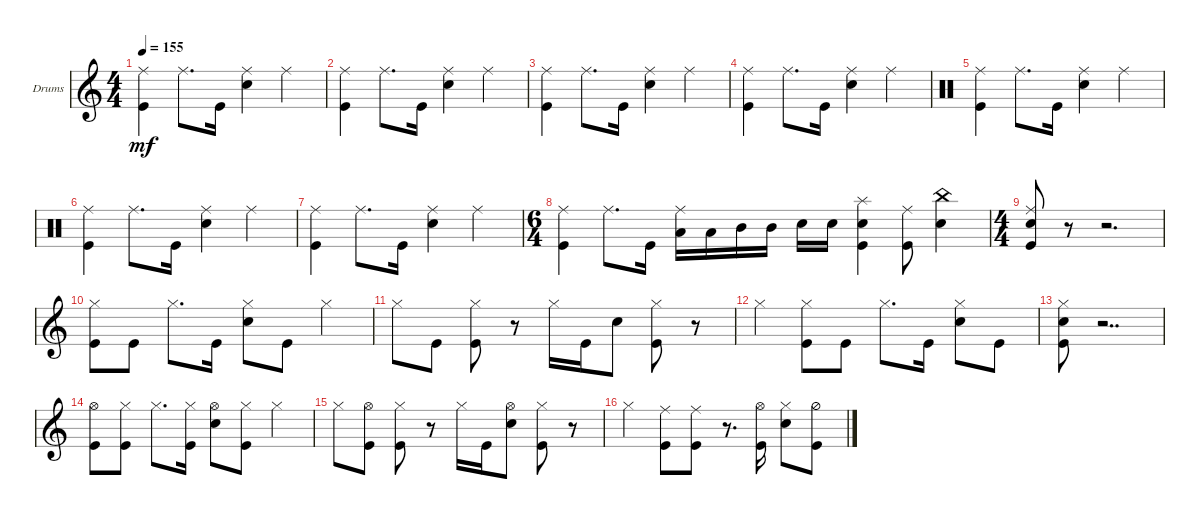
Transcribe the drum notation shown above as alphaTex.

\defaultSystemsLayout 4
\bracketExtendMode groupsimilarinstruments
\firstSystemTrackNameOrientation horizontal
\otherSystemsTrackNameOrientation horizontal
\track ("Drumkit" "Drums") {instrument percussion}
\staff {score}
\articulation defaults
\ts (4 4)
\tempo 155
\clef g2
\scale
0.333333
\ks c
("Kick (hit)" "Ride (middle)").4{dy mf} "Ride (middle)".8{d} "Kick (hit)".16 ("Snare (hit) 2" "Ride (middle)").4 "Ride (middle)".4 |
\scale
0.333333 ("Kick (hit)" "Ride (middle)").4 "Ride (middle)".8{d} "Kick (hit)".16 ("Snare (hit) 2" "Ride (middle)").4 "Ride (middle)".4 |
\scale
0.333333 ("Kick (hit)" "Ride (middle)").4 "Ride (middle)".8{d} "Kick (hit)".16 ("Snare (hit) 2" "Ride (middle)").4 "Ride (middle)".4 |
\scale
0.333333 ("Kick (hit)" "Ride (middle)").4 "Ride (middle)".8{d} "Kick (hit)".16 ("Snare (hit) 2" "Ride (middle)").4 "Ride (middle)".4 |
\clef neutral
\scale
0.333333 ("Kick (hit)" "Ride (middle)").4 "Ride (middle)".8{d} "Kick (hit)".16 ("Snare (hit) 2" "Ride (middle)").4 "Ride (middle)".4 |
\scale
0.333333 ("Kick (hit)" "Ride (middle)").4 "Ride (middle)".8{d} "Kick (hit)".16 ("Snare (hit) 2" "Ride (middle)").4 "Ride (middle)".4 |
\scale
0.333333 ("Kick (hit)" "Ride (middle)").4 "Ride (middle)".8{d} "Kick (hit)".16 ("Snare (hit) 2" "Ride (middle)").4 "Ride (middle)".4 |
\ts (6 4)
\scale
0.218391 ("Kick (hit)" "Ride (middle)").4 "Ride (middle)".8{d} "Kick (hit)".16 ("Ride (middle)" "Low Tom (hit)").16 "Low Tom (hit)".16 "Mid Tom (hit)".16 "Mid Tom (hit)".16 "Snare (hit) 2".16 "Snare (hit) 2".16 ("Splash (hit)" "Snare (hit) 2" "Kick (hit)").4 ("Ride (middle)" "Kick (hit)").8 ("China (hit)" "Snare (hit) 2").4 |
\ts (4 4)
\scale
0.390805 ("Kick (hit)" "Snare (hit) 2" "Ride (middle)").8 r.8 r.2{d} |
\clef g2
\scale
0.390805 ("Kick (hit)" "Hi-Hat (closed)").8 "Kick (hit)".8 "Hi-Hat (closed)".8{d} "Kick (hit)".16 ("Hi-Hat (closed)" "Snare (hit) 2").8 "Kick (hit)".8 "Hi-Hat (closed)".4 |
"Hi-Hat (closed)".8 "Kick (hit)".8 ("Kick (hit)" "Hi-Hat (closed)").8 r.8 "Hi-Hat (closed)".16 "Kick (hit)".16 "Snare (hit) 2".8 ("Kick (hit)" "Hi-Hat (closed)").8 r.8 |
"Hi-Hat (closed)".4 ("Kick (hit)" "Hi-Hat (closed)").8 "Kick (hit)".8 "Hi-Hat (closed)".8{d} "Kick (hit)".16 ("Hi-Hat (closed)" "Snare (hit) 2").8 "Kick (hit)".8 |
("Kick (hit)" "Hi-Hat (closed)" "Snare (hit) 2").8 r.2{dd} |
("Kick (hit)" "Hi-Hat (open)").8 ("Kick (hit)" "Hi-Hat (closed)").8 "Hi-Hat (closed)".8{d} ("Kick (hit)" "Hi-Hat (closed)").16 ("Snare (hit) 2" "Hi-Hat (open)").8 ("Kick (hit)" "Hi-Hat (closed)").8 "Hi-Hat (closed)".4 |
"Hi-Hat (closed)".8 ("Kick (hit)" "Hi-Hat (open)").8 ("Kick (hit)" "Hi-Hat (closed)").8 r.8 "Hi-Hat (closed)".16 "Kick (hit)".16 ("Snare (hit) 2" "Hi-Hat (open)").8 ("Kick (hit)" "Hi-Hat (closed)").8 r.8 |
"Hi-Hat (closed)".4 ("Kick (hit)" "Ride (middle)").8 ("Kick (hit)" "Ride (middle)").8 r.8{d} ("Kick (hit)" "Hi-Hat (open)").16 ("Snare (hit) 2" "Hi-Hat (closed)").8 ("Kick (hit)" "Hi-Hat (half)").8
